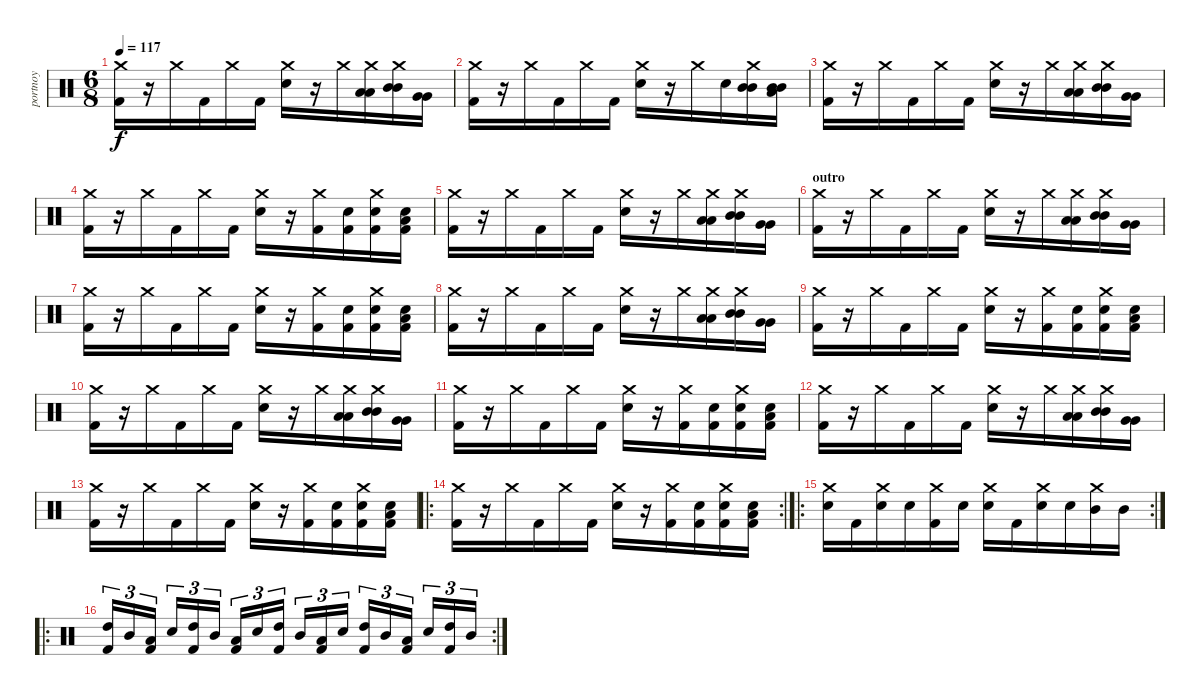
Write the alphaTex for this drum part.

\track ("portnoy" "portnoy") {instrument percussion}
\staff {score}
\articulation defaults
\ts (6 8)
\tempo 117
\clef neutral
\ks c
("Crash medium (hit)" "Kick (hit) 2").16{dy f} r.16 "Crash medium (hit)".16 "Kick (hit) 2".16 "Crash medium (hit)".16 "Kick (hit) 2".16 ("Crash medium (hit)" "Electric Snare (hit)").16 r.16 "Crash medium (hit)".16 ("Low Tom (hit)" "Low Tom (hit)" "Crash medium (hit)").16 ("Mid Tom (hit)" "Mid Tom (hit)" "Crash medium (hit)").16 ("Very Low Tom (hit)" "Very Low Tom (hit)").16 |
("Crash medium (hit)" "Kick (hit) 2").16 r.16 "Crash medium (hit)".16 "Kick (hit) 2".16 "Crash medium (hit)".16 "Kick (hit) 2".16 ("Crash medium (hit)" "Electric Snare (hit)").16 r.16 "Crash medium (hit)".16 "Electric Snare (hit)".16 ("Mid Tom (hit)" "Mid Tom (hit)" "Crash medium (hit)").16 ("Mid Tom (hit)" "Mid Tom (hit)" "Low Tom (hit)").16 |
("Crash medium (hit)" "Kick (hit) 2").16 r.16 "Crash medium (hit)".16 "Kick (hit) 2".16 "Crash medium (hit)".16 "Kick (hit) 2".16 ("Crash medium (hit)" "Electric Snare (hit)").16 r.16 "Crash medium (hit)".16 ("Low Tom (hit)" "Low Tom (hit)" "Crash medium (hit)").16 ("Mid Tom (hit)" "Mid Tom (hit)" "Crash medium (hit)").16 ("Very Low Tom (hit)" "Very Low Tom (hit)").16 |
("Crash medium (hit)" "Kick (hit) 2").16 r.16 "Crash medium (hit)".16 "Kick (hit) 2".16 "Crash medium (hit)".16 "Kick (hit) 2".16 ("Crash medium (hit)" "Electric Snare (hit)").16 r.16 ("Crash medium (hit)" "Kick (hit) 2").16 ("Electric Snare (hit)" "Kick (hit) 2").16 ("Crash medium (hit)" "Electric Snare (hit)" "Kick (hit) 2").16 ("Low Tom (hit)" "Electric Snare (hit)" "Kick (hit) 2").16 |
("Crash medium (hit)" "Kick (hit) 2").16 r.16 "Crash medium (hit)".16 "Kick (hit) 2".16 "Crash medium (hit)".16 "Kick (hit) 2".16 ("Crash medium (hit)" "Electric Snare (hit)").16 r.16 "Crash medium (hit)".16 ("Low Tom (hit)" "Low Tom (hit)" "Crash medium (hit)").16 ("Mid Tom (hit)" "Mid Tom (hit)" "Crash medium (hit)").16 ("Very Low Tom (hit)" "Very Low Tom (hit)").16 |
\section ("" "outro")
("Crash medium (hit)" "Kick (hit) 2").16 r.16 "Crash medium (hit)".16 "Kick (hit) 2".16 "Crash medium (hit)".16 "Kick (hit) 2".16 ("Crash medium (hit)" "Electric Snare (hit)").16 r.16 "Crash medium (hit)".16 ("Low Tom (hit)" "Low Tom (hit)" "Crash medium (hit)").16 ("Mid Tom (hit)" "Mid Tom (hit)" "Crash medium (hit)").16 ("Very Low Tom (hit)" "Very Low Tom (hit)").16 |
("Crash medium (hit)" "Kick (hit) 2").16 r.16 "Crash medium (hit)".16 "Kick (hit) 2".16 "Crash medium (hit)".16 "Kick (hit) 2".16 ("Crash medium (hit)" "Electric Snare (hit)").16 r.16 ("Crash medium (hit)" "Kick (hit) 2").16 ("Electric Snare (hit)" "Kick (hit) 2").16 ("Crash medium (hit)" "Electric Snare (hit)" "Kick (hit) 2").16 ("Low Tom (hit)" "Electric Snare (hit)" "Kick (hit) 2").16 |
("Crash medium (hit)" "Kick (hit) 2").16 r.16 "Crash medium (hit)".16 "Kick (hit) 2".16 "Crash medium (hit)".16 "Kick (hit) 2".16 ("Crash medium (hit)" "Electric Snare (hit)").16 r.16 "Crash medium (hit)".16 ("Low Tom (hit)" "Low Tom (hit)" "Crash medium (hit)").16 ("Mid Tom (hit)" "Mid Tom (hit)" "Crash medium (hit)").16 ("Very Low Tom (hit)" "Very Low Tom (hit)").16 |
("Crash medium (hit)" "Kick (hit) 2").16 r.16 "Crash medium (hit)".16 "Kick (hit) 2".16 "Crash medium (hit)".16 "Kick (hit) 2".16 ("Crash medium (hit)" "Electric Snare (hit)").16 r.16 ("Crash medium (hit)" "Kick (hit) 2").16 ("Electric Snare (hit)" "Kick (hit) 2").16 ("Crash medium (hit)" "Electric Snare (hit)" "Kick (hit) 2").16 ("Low Tom (hit)" "Electric Snare (hit)" "Kick (hit) 2").16 |
("Crash medium (hit)" "Kick (hit) 2").16 r.16 "Crash medium (hit)".16 "Kick (hit) 2".16 "Crash medium (hit)".16 "Kick (hit) 2".16 ("Crash medium (hit)" "Electric Snare (hit)").16 r.16 "Crash medium (hit)".16 ("Low Tom (hit)" "Low Tom (hit)" "Crash medium (hit)").16 ("Mid Tom (hit)" "Mid Tom (hit)" "Crash medium (hit)").16 ("Very Low Tom (hit)" "Very Low Tom (hit)").16 |
("Crash medium (hit)" "Kick (hit) 2").16 r.16 "Crash medium (hit)".16 "Kick (hit) 2".16 "Crash medium (hit)".16 "Kick (hit) 2".16 ("Crash medium (hit)" "Electric Snare (hit)").16 r.16 ("Crash medium (hit)" "Kick (hit) 2").16 ("Electric Snare (hit)" "Kick (hit) 2").16 ("Crash medium (hit)" "Electric Snare (hit)" "Kick (hit) 2").16 ("Low Tom (hit)" "Electric Snare (hit)" "Kick (hit) 2").16 |
("Crash medium (hit)" "Kick (hit) 2").16 r.16 "Crash medium (hit)".16 "Kick (hit) 2".16 "Crash medium (hit)".16 "Kick (hit) 2".16 ("Crash medium (hit)" "Electric Snare (hit)").16 r.16 "Crash medium (hit)".16 ("Low Tom (hit)" "Low Tom (hit)" "Crash medium (hit)").16 ("Mid Tom (hit)" "Mid Tom (hit)" "Crash medium (hit)").16 ("Very Low Tom (hit)" "Very Low Tom (hit)").16 |
("Crash medium (hit)" "Kick (hit) 2").16 r.16 "Crash medium (hit)".16 "Kick (hit) 2".16 "Crash medium (hit)".16 "Kick (hit) 2".16 ("Crash medium (hit)" "Electric Snare (hit)").16 r.16 ("Crash medium (hit)" "Kick (hit) 2").16 ("Electric Snare (hit)" "Kick (hit) 2").16 ("Crash medium (hit)" "Electric Snare (hit)" "Kick (hit) 2").16 ("Low Tom (hit)" "Electric Snare (hit)" "Kick (hit) 2").16 |
\ro
\rc 2
("Crash medium (hit)" "Kick (hit) 2").16 r.16 "Crash medium (hit)".16 "Kick (hit) 2".16 "Crash medium (hit)".16 "Kick (hit) 2".16 ("Crash medium (hit)" "Electric Snare (hit)").16 r.16 ("Crash medium (hit)" "Kick (hit) 2").16 ("Electric Snare (hit)" "Kick (hit) 2").16 ("Crash medium (hit)" "Electric Snare (hit)" "Kick (hit) 2").16 ("Low Tom (hit)" "Electric Snare (hit)" "Kick (hit) 2").16 |
\ro
\rc 2
("Crash medium (hit)" "Electric Snare (hit)").16 "Kick (hit) 2".16 ("Crash medium (hit)" "Snare (hit) 2").16 "Electric Snare (hit)".16 ("Crash medium (hit)" "Kick (hit) 2").16 "Snare (hit) 2".16 ("Crash medium (hit)" "Electric Snare (hit)").16 "Kick (hit) 2".16 ("Crash medium (hit)" "Snare (hit) 2").16 "Electric Snare (hit)".16 ("Crash medium (hit)" "Mid Tom (hit)").16 "Mid Tom (hit)".16 |
\ro
\rc 2
("Kick (hit) 2" "High Tom (hit)").16{tu (3 2)} "Mid Tom (hit)".16{tu (3 2)} ("Kick (hit) 2" "Low Tom (hit)").16{tu (3 2)} "Electric Snare (hit)".16{tu (3 2)} ("Kick (hit) 2" "High Tom (hit)").16{tu (3 2)} "Mid Tom (hit)".16{tu (3 2)} ("Kick (hit) 2" "Low Tom (hit)").16{tu (3 2)} "Electric Snare (hit)".16{tu (3 2)} ("Kick (hit) 2" "High Tom (hit)").16{tu (3 2)} "Mid Tom (hit)".16{tu (3 2)} ("Kick (hit) 2" "Low Tom (hit)").16{tu (3 2)} "Electric Snare (hit)".16{tu (3 2)} ("Kick (hit) 2" "High Tom (hit)").16{tu (3 2)} "Mid Tom (hit)".16{tu (3 2)} ("Kick (hit) 2" "Low Tom (hit)").16{tu (3 2)} "Electric Snare (hit)".16{tu (3 2)} ("Kick (hit) 2" "High Tom (hit)").16{tu (3 2)} "Mid Tom (hit)".16{tu (3 2)}
